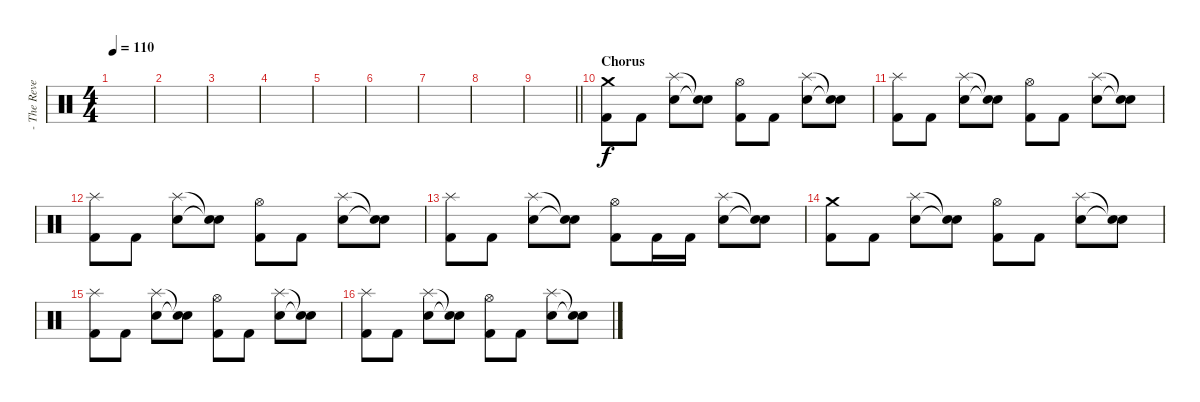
\track ("- The Reverend - Drums" "- The Reve") {instrument percussion}
\staff {score}
\articulation defaults
\ts (4 4)
\tempo 110
\clef neutral
\ks c
|
|
|
|
|
|
|
|
\barLineRight lightlight
|
\section ("" "Chorus")
("Crash medium (hit)" "Kick (hit) 2").8 "Kick (hit) 2".8 ("Splash (hit)" "Snare (hit) 2").8 ("Snare (hit)"{t} "Snare (hit)"{t}).8 ("Hi-Hat (open)" "Kick (hit) 2").8 "Kick (hit) 2".8 ("Splash (hit)" "Snare (hit) 2").8 ("Snare (hit)"{t} "Snare (hit)"{t}).8 |
("Splash (hit)" "Kick (hit) 2").8 "Kick (hit) 2".8 ("Splash (hit)" "Snare (hit) 2").8 ("Snare (hit)"{t} "Snare (hit)"{t}).8 ("Hi-Hat (open)" "Kick (hit) 2").8 "Kick (hit) 2".8 ("Splash (hit)" "Snare (hit) 2").8 ("Snare (hit)"{t} "Snare (hit)"{t}).8 |
("Splash (hit)" "Kick (hit) 2").8 "Kick (hit) 2".8 ("Splash (hit)" "Snare (hit) 2").8 ("Snare (hit)"{t} "Snare (hit)"{t}).8 ("Hi-Hat (open)" "Kick (hit) 2").8 "Kick (hit) 2".8 ("Splash (hit)" "Snare (hit) 2").8 ("Snare (hit)"{t} "Snare (hit)"{t}).8 |
("Splash (hit)" "Kick (hit) 2").8 "Kick (hit) 2".8 ("Splash (hit)" "Snare (hit) 2").8 ("Snare (hit)"{t} "Snare (hit)"{t}).8 ("Hi-Hat (open)" "Kick (hit) 2").8 "Kick (hit) 2".16 "Kick (hit) 2".16 ("Splash (hit)" "Snare (hit) 2").8 ("Snare (hit)"{t} "Snare (hit)"{t}).8 |
("Crash medium (hit)" "Kick (hit) 2").8 "Kick (hit) 2".8 ("Splash (hit)" "Snare (hit) 2").8 ("Snare (hit)"{t} "Snare (hit)"{t}).8 ("Hi-Hat (open)" "Kick (hit) 2").8 "Kick (hit) 2".8 ("Splash (hit)" "Snare (hit) 2").8 ("Snare (hit)"{t} "Snare (hit)"{t}).8 |
("Splash (hit)" "Kick (hit) 2").8 "Kick (hit) 2".8 ("Splash (hit)" "Snare (hit) 2").8 ("Snare (hit)"{t} "Snare (hit)"{t}).8 ("Hi-Hat (open)" "Kick (hit) 2").8 "Kick (hit) 2".8 ("Splash (hit)" "Snare (hit) 2").8 ("Snare (hit)"{t} "Snare (hit)"{t}).8 |
("Splash (hit)" "Kick (hit) 2").8 "Kick (hit) 2".8 ("Splash (hit)" "Snare (hit) 2").8 ("Snare (hit)"{t} "Snare (hit)"{t}).8 ("Hi-Hat (open)" "Kick (hit) 2").8 "Kick (hit) 2".8 ("Splash (hit)" "Snare (hit) 2").8 ("Snare (hit)"{t} "Snare (hit)"{t}).8
